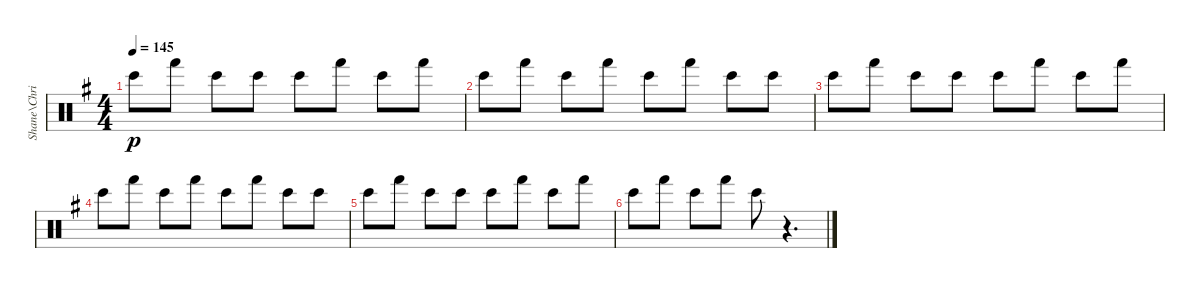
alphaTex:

\track ("Shane\\Chris - Percussion" "Shane\\Chri") {instrument percussion}
\staff {score}
\articulation defaults
\ts (4 4)
\tempo 145
\clef neutral
\ks g "Bongo High (hit)".8{dy p} "Hand (hit)".8 "Bongo High (hit)".8 "Bongo High (hit)".8 "Bongo High (hit)".8 "Hand (hit)".8 "Bongo High (hit)".8 "Hand (hit)".8
|
"Bongo High (hit)".8 "Hand (hit)".8 "Bongo High (hit)".8 "Hand (hit)".8 "Bongo High (hit)".8 "Hand (hit)".8 "Bongo High (hit)".8 "Bongo High (hit)".8 |
"Bongo High (hit)".8 "Hand (hit)".8 "Bongo High (hit)".8 "Bongo High (hit)".8 "Bongo High (hit)".8 "Hand (hit)".8 "Bongo High (hit)".8 "Hand (hit)".8 |
"Bongo High (hit)".8 "Hand (hit)".8 "Bongo High (hit)".8 "Hand (hit)".8 "Bongo High (hit)".8 "Hand (hit)".8 "Bongo High (hit)".8 "Bongo High (hit)".8 |
"Bongo High (hit)".8 "Hand (hit)".8 "Bongo High (hit)".8 "Bongo High (hit)".8 "Bongo High (hit)".8 "Hand (hit)".8 "Bongo High (hit)".8 "Hand (hit)".8 |
"Bongo High (hit)".8 "Hand (hit)".8 "Bongo High (hit)".8 "Hand (hit)".8 "Bongo High (hit)".8 r.4{d}
